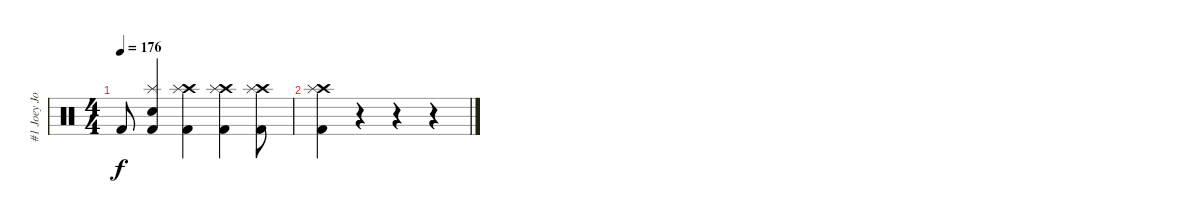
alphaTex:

\track ("#1 Joey Jordison - Drums" "#1 Joey Jo") {instrument percussion}
\staff {score}
\articulation defaults
\ts (4 4)
\tempo 176
\clef neutral
\ks c "Kick (hit) 2".8{dy f}
("Splash (hit)" "Snare (hit) 2" "Kick (hit) 2").4 ("Crash high (hit)" "Splash (hit)" "Kick (hit) 2").4 ("Crash high (hit)" "Splash (hit)" "Kick (hit) 2").4 ("Crash high (hit)" "Splash (hit)" "Kick (hit) 2").8 |
("Crash high (hit)" "Splash (hit)" "Kick (hit) 2").4 r.4 r.4 r.4
